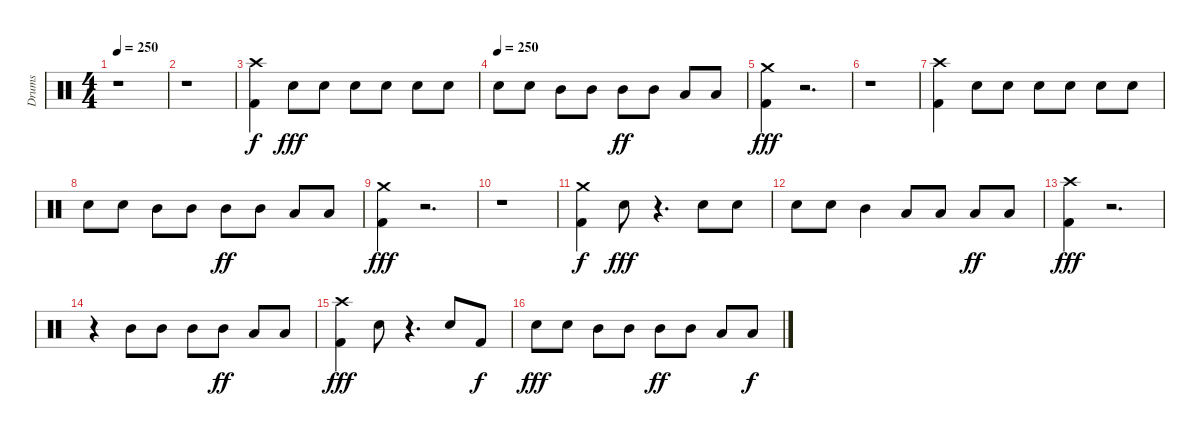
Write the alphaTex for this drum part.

\track ("Drums" "Drums") {instrument percussion}
\staff {score}
\articulation defaults
\ts (4 4)
\tempo 250
\clef neutral
\ks c
r.1{dy f} |
r.1 |
("Crash high (hit)" "Kick (hit) 2").4 "Snare (hit) 2".8{dy fff} "Snare (hit) 2".8 "Snare (hit) 2".8 "Snare (hit) 2".8 "Snare (hit) 2".8 "Snare (hit) 2".8 |
\tempo (250)
"Snare (hit) 2".8 "Snare (hit) 2".8 "Mid Tom (hit)".8 "Mid Tom (hit)".8 "Mid Tom (hit)".8{dy ff} "Mid Tom (hit)".8 "Low Tom (hit)".8 "Low Tom (hit)".8 |
("Crash medium (hit)" "Kick (hit) 2").4{dy fff} r.2{d} |
r.1 |
("Crash high (hit)" "Kick (hit) 2").4 "Snare (hit) 2".8 "Snare (hit) 2".8 "Snare (hit) 2".8 "Snare (hit) 2".8 "Snare (hit) 2".8 "Snare (hit) 2".8 |
"Snare (hit) 2".8 "Snare (hit) 2".8 "Mid Tom (hit)".8 "Mid Tom (hit)".8 "Mid Tom (hit)".8{dy ff} "Mid Tom (hit)".8 "Low Tom (hit)".8 "Low Tom (hit)".8 |
("Crash medium (hit)" "Kick (hit) 2").4{dy fff} r.2{d} |
r.1 |
("Crash medium (hit)" "Kick (hit) 2").4{dy f} "Snare (hit) 2".8{dy fff} r.4{d} "Snare (hit) 2".8 "Snare (hit) 2".8 |
"Snare (hit) 2".8 "Snare (hit) 2".8 "Mid Tom (hit)".4 "Low Tom (hit)".8 "Low Tom (hit)".8 "Low Tom (hit)".8{dy ff} "Low Tom (hit)".8 |
("Crash high (hit)" "Kick (hit) 2").4{dy fff} r.2{d} |
r.4 "Mid Tom (hit)".8 "Mid Tom (hit)".8 "Mid Tom (hit)".8 "Mid Tom (hit)".8{dy ff} "Low Tom (hit)".8 "Low Tom (hit)".8 |
("Crash high (hit)" "Kick (hit) 2").4{dy fff} "Snare (hit) 2".8 r.4{d} "Snare (hit) 2".8 "Kick (hit) 2".8{dy f} |
"Snare (hit) 2".8{dy fff} "Snare (hit) 2".8 "Mid Tom (hit)".8 "Mid Tom (hit)".8 "Mid Tom (hit)".8{dy ff} "Mid Tom (hit)".8 "Low Tom (hit)".8 "Low Tom (hit)".8{dy f}
